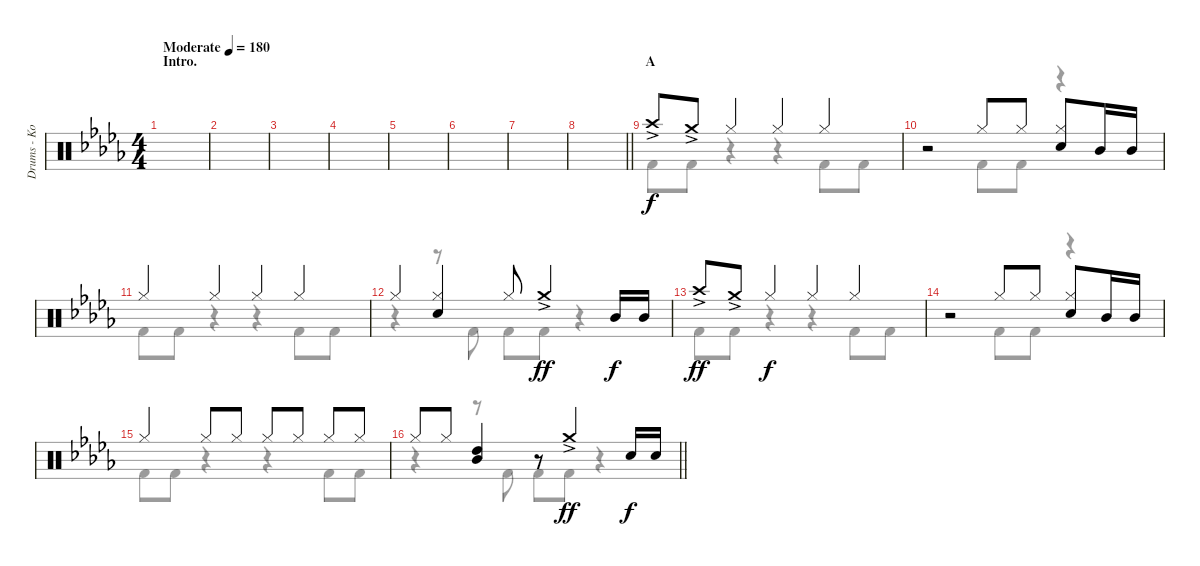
\track ("Drums - Koji Hasegawa" "Drums - Ko") {instrument percussion}
\staff {score}
\articulation defaults
\voice
\ts (4 4)
\section ("" "Intro.")
\tempo (180 "Moderate")
\clef neutral
\ks db
|
|
|
|
|
|
|
\barLineRight lightlight
|
\section ("" "A")
"Crash high (hit)"{ac}.8 "Crash medium (hit)"{ac}.8 "Hi-Hat (closed)".4{dy f} "Hi-Hat (closed)".4 "Hi-Hat (closed)".4 |
r.2 "Hi-Hat (closed)".8 "Hi-Hat (closed)".8 ("Hi-Hat (closed)" "Snare (hit) 2").8 "Mid Tom (hit)".16 "Mid Tom (hit)".16 |
"Hi-Hat (closed)".4 "Hi-Hat (closed)".4 "Hi-Hat (closed)".4 "Hi-Hat (closed)".4 |
"Hi-Hat (closed)".4 ("Hi-Hat (closed)" "Snare (hit) 2").4 "Hi-Hat (closed)".8 "Crash medium (hit)"{ac}.4{dy ff} "Mid Tom (hit)".16{dy f} "Mid Tom (hit)".16 |
"Crash high (hit)"{ac}.8{dy ff} "Crash medium (hit)"{ac}.8 "Hi-Hat (closed)".4{dy f} "Hi-Hat (closed)".4 "Hi-Hat (closed)".4 |
r.2 "Hi-Hat (closed)".8 "Hi-Hat (closed)".8 ("Hi-Hat (closed)" "Snare (hit) 2").8 "Mid Tom (hit)".16 "Mid Tom (hit)".16 |
"Hi-Hat (closed)".4 "Hi-Hat (closed)".8 "Hi-Hat (closed)".8 "Hi-Hat (closed)".8 "Hi-Hat (closed)".8 "Hi-Hat (closed)".8 "Hi-Hat (closed)".8 |
\barLineRight lightlight "Hi-Hat (closed)".8 "Hi-Hat (closed)".8
("High Tom (hit)" "Mid Tom (hit)").4 r.8 "Crash medium (hit)"{ac}.4{dy ff} "Snare (hit) 2".16{dy f} "Snare (hit) 2".16
\voice
\clef neutral
\ottava regular
\simile none
\ks db
|
|
|
|
|
|
|
\barLineRight lightlight
|
"Kick (hit) 2".8 "Kick (hit) 2".8 r.4 r.4 "Kick (hit) 2".8 "Kick (hit) 2".8 |
r.2 "Kick (hit) 2".8 "Kick (hit) 2".8 r.4 |
"Kick (hit) 2".8 "Kick (hit) 2".8 r.4 r.4 "Kick (hit) 2".8 "Kick (hit) 2".8 |
r.4 r.8 "Kick (hit) 2".8 "Kick (hit) 2".8 "Kick (hit) 2".8 r.4 |
"Kick (hit) 2".8 "Kick (hit) 2".8 r.4 r.4 "Kick (hit) 2".8 "Kick (hit) 2".8 |
r.2 "Kick (hit) 2".8 "Kick (hit) 2".8 r.4 |
"Kick (hit) 2".8 "Kick (hit) 2".8 r.4 r.4 "Kick (hit) 2".8 "Kick (hit) 2".8 |
\barLineRight lightlight
r.4 r.8 "Kick (hit) 2".8 "Kick (hit) 2".8 "Kick (hit) 2".8 r.4
